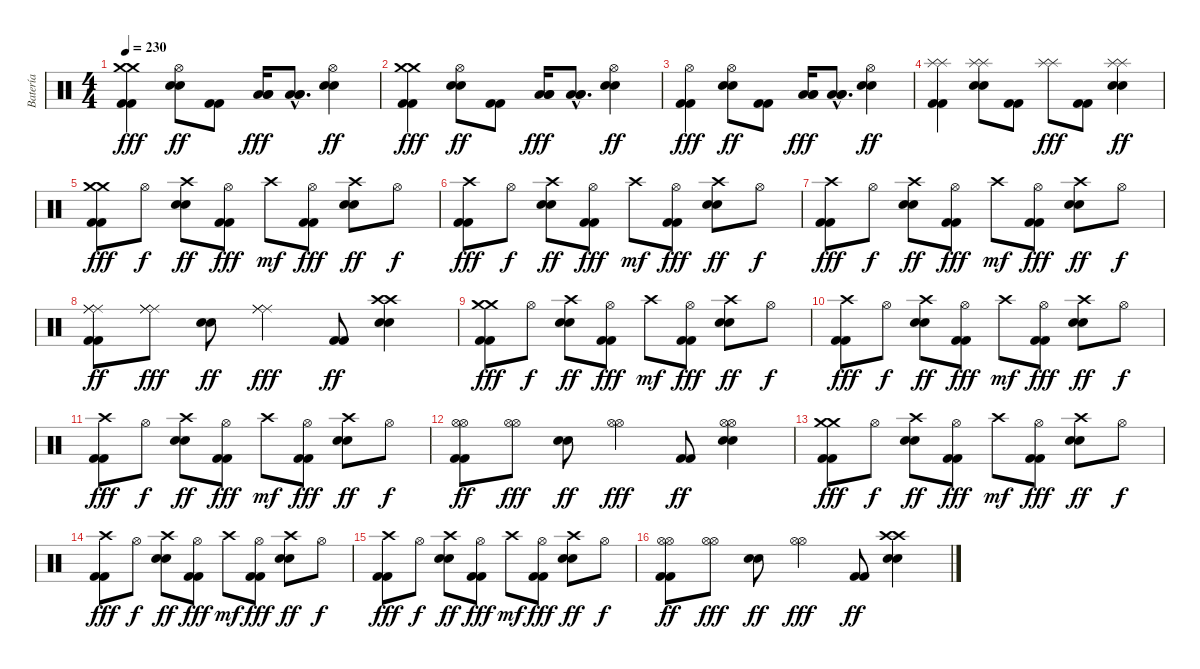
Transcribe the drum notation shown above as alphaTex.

\track ("Batería" "Batería") {instrument percussion}
\staff {score}
\articulation defaults
\ts (4 4)
\tempo 230
\clef neutral
\ks c
("Crash medium (hit)" "Crash medium (hit)" "Kick (hit) 2" "Kick (hit) 2").4{dy fff} ("Hi-Hat (open)" "Electric Snare (hit)" "Electric Snare (hit)").8{dy ff} ("Kick (hit) 2" "Kick (hit) 2").8 ("Low Tom (hit)" "Low Floor Tom (hit)" "Low Floor Tom (hit)").16{dy fff} ("Low Tom (hit)"{hac} "Low Floor Tom (hit)"{hac} "Low Floor Tom (hit)"{hac}).8{d} ("Hi-Hat (open)" "Electric Snare (hit)" "Electric Snare (hit)").4{dy ff} |
("Crash medium (hit)" "Crash medium (hit)" "Kick (hit) 2" "Kick (hit) 2").4{dy fff} ("Hi-Hat (open)" "Electric Snare (hit)" "Electric Snare (hit)").8{dy ff} ("Kick (hit) 2" "Kick (hit) 2").8 ("Low Tom (hit)" "Low Floor Tom (hit)" "Low Floor Tom (hit)").16{dy fff} ("Low Tom (hit)"{hac} "Low Floor Tom (hit)"{hac} "Low Floor Tom (hit)"{hac}).8{d} ("Hi-Hat (open)" "Electric Snare (hit)" "Electric Snare (hit)").4{dy ff} |
("Hi-Hat (open)" "Kick (hit) 2" "Kick (hit) 2").4{dy fff} ("Hi-Hat (open)" "Electric Snare (hit)" "Electric Snare (hit)").8{dy ff} ("Kick (hit) 2" "Kick (hit) 2").8 ("Low Tom (hit)" "Low Floor Tom (hit)" "Low Floor Tom (hit)").16{dy fff} ("Low Tom (hit)"{hac} "Low Floor Tom (hit)"{hac} "Low Floor Tom (hit)"{hac}).8{d} ("Hi-Hat (open)" "Electric Snare (hit)" "Electric Snare (hit)").4{dy ff} |
("Splash (hit)" "Splash (hit)" "Kick (hit) 2" "Kick (hit) 2").4 ("Splash (hit)" "Splash (hit)" "Electric Snare (hit)" "Electric Snare (hit)").8 ("Kick (hit) 2" "Kick (hit) 2").8 ("Splash (hit)" "Splash (hit)").8{dy fff} ("Kick (hit) 2" "Kick (hit) 2").8 ("Splash (hit)" "Splash (hit)" "Electric Snare (hit)" "Electric Snare (hit)").4{dy ff} |
("Crash medium (hit)" "Crash medium (hit)" "Kick (hit) 2" "Kick (hit) 2").8{dy fff} "Hi-Hat (open)".8{dy f} ("Crash high (hit)" "Electric Snare (hit)" "Electric Snare (hit)").8{dy ff} ("Hi-Hat (open)" "Kick (hit) 2" "Kick (hit) 2").8{dy fff} "Crash high (hit)".8{dy mf} ("Hi-Hat (open)" "Kick (hit) 2" "Kick (hit) 2").8{dy fff} ("Crash high (hit)" "Electric Snare (hit)" "Electric Snare (hit)").8{dy ff} "Hi-Hat (open)".8{dy f} |
("Crash high (hit)" "Kick (hit) 2" "Kick (hit) 2").8{dy fff} "Hi-Hat (open)".8{dy f} ("Crash high (hit)" "Electric Snare (hit)" "Electric Snare (hit)").8{dy ff} ("Hi-Hat (open)" "Kick (hit) 2" "Kick (hit) 2").8{dy fff} "Crash high (hit)".8{dy mf} ("Hi-Hat (open)" "Kick (hit) 2" "Kick (hit) 2").8{dy fff} ("Crash high (hit)" "Electric Snare (hit)" "Electric Snare (hit)").8{dy ff} "Hi-Hat (open)".8{dy f} |
("Crash high (hit)" "Kick (hit) 2" "Kick (hit) 2").8{dy fff} "Hi-Hat (open)".8{dy f} ("Crash high (hit)" "Electric Snare (hit)" "Electric Snare (hit)").8{dy ff} ("Hi-Hat (open)" "Kick (hit) 2" "Kick (hit) 2").8{dy fff} "Crash high (hit)".8{dy mf} ("Hi-Hat (open)" "Kick (hit) 2" "Kick (hit) 2").8{dy fff} ("Crash high (hit)" "Electric Snare (hit)" "Electric Snare (hit)").8{dy ff} "Hi-Hat (open)".8{dy f} |
("Ride (middle)" "Ride (middle)" "Ride (middle)" "Kick (hit) 2" "Kick (hit) 2").8{dy ff} ("Ride (middle)" "Ride (middle)" "Ride (middle)").8{dy fff} ("Electric Snare (hit)" "Electric Snare (hit)").8{dy ff} ("Ride (middle)" "Ride (middle)" "Ride (middle)").4{dy fff} ("Kick (hit) 2" "Kick (hit) 2").8{dy ff} ("Crash high (hit)" "Crash high (hit)" "Electric Snare (hit)" "Electric Snare (hit)").4 |
("Crash medium (hit)" "Crash medium (hit)" "Kick (hit) 2" "Kick (hit) 2").8{dy fff} "Hi-Hat (open)".8{dy f} ("Crash high (hit)" "Electric Snare (hit)" "Electric Snare (hit)").8{dy ff} ("Hi-Hat (open)" "Kick (hit) 2" "Kick (hit) 2").8{dy fff} "Crash high (hit)".8{dy mf} ("Hi-Hat (open)" "Kick (hit) 2" "Kick (hit) 2").8{dy fff} ("Crash high (hit)" "Electric Snare (hit)" "Electric Snare (hit)").8{dy ff} "Hi-Hat (open)".8{dy f} |
("Crash high (hit)" "Kick (hit) 2" "Kick (hit) 2").8{dy fff} "Hi-Hat (open)".8{dy f} ("Crash high (hit)" "Electric Snare (hit)" "Electric Snare (hit)").8{dy ff} ("Hi-Hat (open)" "Kick (hit) 2" "Kick (hit) 2").8{dy fff} "Crash high (hit)".8{dy mf} ("Hi-Hat (open)" "Kick (hit) 2" "Kick (hit) 2").8{dy fff} ("Crash high (hit)" "Electric Snare (hit)" "Electric Snare (hit)").8{dy ff} "Hi-Hat (open)".8{dy f} |
("Crash high (hit)" "Kick (hit) 2" "Kick (hit) 2").8{dy fff} "Hi-Hat (open)".8{dy f} ("Crash high (hit)" "Electric Snare (hit)" "Electric Snare (hit)").8{dy ff} ("Hi-Hat (open)" "Kick (hit) 2" "Kick (hit) 2").8{dy fff} "Crash high (hit)".8{dy mf} ("Hi-Hat (open)" "Kick (hit) 2" "Kick (hit) 2").8{dy fff} ("Crash high (hit)" "Electric Snare (hit)" "Electric Snare (hit)").8{dy ff} "Hi-Hat (open)".8{dy f} |
("Hi-Hat (open)" "Hi-Hat (open)" "Kick (hit) 2" "Kick (hit) 2").8{dy ff} ("Hi-Hat (open)" "Hi-Hat (open)").8{dy fff} ("Electric Snare (hit)" "Electric Snare (hit)").8{dy ff} ("Hi-Hat (open)" "Hi-Hat (open)").4{dy fff} ("Kick (hit) 2" "Kick (hit) 2").8{dy ff} ("Hi-Hat (open)" "Hi-Hat (open)" "Electric Snare (hit)" "Electric Snare (hit)").4 |
("Crash medium (hit)" "Crash medium (hit)" "Kick (hit) 2" "Kick (hit) 2").8{dy fff} "Hi-Hat (open)".8{dy f} ("Crash high (hit)" "Electric Snare (hit)" "Electric Snare (hit)").8{dy ff} ("Hi-Hat (open)" "Kick (hit) 2" "Kick (hit) 2").8{dy fff} "Crash high (hit)".8{dy mf} ("Hi-Hat (open)" "Kick (hit) 2" "Kick (hit) 2").8{dy fff} ("Crash high (hit)" "Electric Snare (hit)" "Electric Snare (hit)").8{dy ff} "Hi-Hat (open)".8{dy f} |
("Crash high (hit)" "Kick (hit) 2" "Kick (hit) 2").8{dy fff} "Hi-Hat (open)".8{dy f} ("Crash high (hit)" "Electric Snare (hit)" "Electric Snare (hit)").8{dy ff} ("Hi-Hat (open)" "Kick (hit) 2" "Kick (hit) 2").8{dy fff} "Crash high (hit)".8{dy mf} ("Hi-Hat (open)" "Kick (hit) 2" "Kick (hit) 2").8{dy fff} ("Crash high (hit)" "Electric Snare (hit)" "Electric Snare (hit)").8{dy ff} "Hi-Hat (open)".8{dy f} |
("Crash high (hit)" "Kick (hit) 2" "Kick (hit) 2").8{dy fff} "Hi-Hat (open)".8{dy f} ("Crash high (hit)" "Electric Snare (hit)" "Electric Snare (hit)").8{dy ff} ("Hi-Hat (open)" "Kick (hit) 2" "Kick (hit) 2").8{dy fff} "Crash high (hit)".8{dy mf} ("Hi-Hat (open)" "Kick (hit) 2" "Kick (hit) 2").8{dy fff} ("Crash high (hit)" "Electric Snare (hit)" "Electric Snare (hit)").8{dy ff} "Hi-Hat (open)".8{dy f} |
("Hi-Hat (open)" "Hi-Hat (open)" "Kick (hit) 2" "Kick (hit) 2").8{dy ff} ("Hi-Hat (open)" "Hi-Hat (open)").8{dy fff} ("Electric Snare (hit)" "Electric Snare (hit)").8{dy ff} ("Hi-Hat (open)" "Hi-Hat (open)").4{dy fff} ("Kick (hit) 2" "Kick (hit) 2").8{dy ff} ("Crash high (hit)" "Crash high (hit)" "Electric Snare (hit)" "Electric Snare (hit)").4
